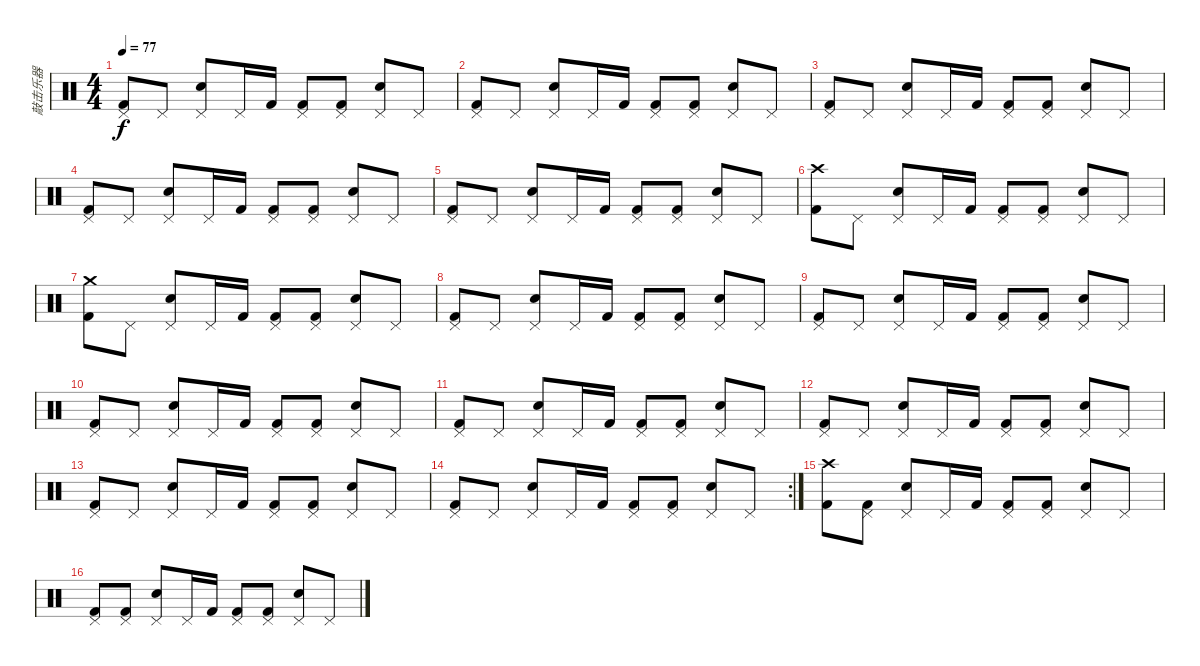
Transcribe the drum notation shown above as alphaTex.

\track ("敲击乐器" "敲击乐器") {instrument percussion}
\staff {score}
\articulation defaults
\ts (4 4)
\tempo 77
\clef neutral
\ks c
("Pedal Hi-Hat (hit)" "Kick (hit) 2").8{dy f} "Pedal Hi-Hat (hit)".8 ("Pedal Hi-Hat (hit)" "Snare (hit) 2").8 "Pedal Hi-Hat (hit)".16 "Kick (hit) 2".16 ("Pedal Hi-Hat (hit)" "Kick (hit) 2").8 ("Pedal Hi-Hat (hit)" "Kick (hit) 2").8 ("Pedal Hi-Hat (hit)" "Snare (hit) 2").8 "Pedal Hi-Hat (hit)".8 |
("Pedal Hi-Hat (hit)" "Kick (hit) 2").8 "Pedal Hi-Hat (hit)".8 ("Pedal Hi-Hat (hit)" "Snare (hit) 2").8 "Pedal Hi-Hat (hit)".16 "Kick (hit) 2".16 ("Pedal Hi-Hat (hit)" "Kick (hit) 2").8 ("Pedal Hi-Hat (hit)" "Kick (hit) 2").8 ("Pedal Hi-Hat (hit)" "Snare (hit) 2").8 "Pedal Hi-Hat (hit)".8 |
("Pedal Hi-Hat (hit)" "Kick (hit) 2").8 "Pedal Hi-Hat (hit)".8 ("Pedal Hi-Hat (hit)" "Snare (hit) 2").8 "Pedal Hi-Hat (hit)".16 "Kick (hit) 2".16 ("Pedal Hi-Hat (hit)" "Kick (hit) 2").8 ("Pedal Hi-Hat (hit)" "Kick (hit) 2").8 ("Pedal Hi-Hat (hit)" "Snare (hit) 2").8 "Pedal Hi-Hat (hit)".8 |
("Pedal Hi-Hat (hit)" "Kick (hit) 2").8 "Pedal Hi-Hat (hit)".8 ("Pedal Hi-Hat (hit)" "Snare (hit) 2").8 "Pedal Hi-Hat (hit)".16 "Kick (hit) 2".16 ("Pedal Hi-Hat (hit)" "Kick (hit) 2").8 ("Pedal Hi-Hat (hit)" "Kick (hit) 2").8 ("Pedal Hi-Hat (hit)" "Snare (hit) 2").8 "Pedal Hi-Hat (hit)".8 |
("Pedal Hi-Hat (hit)" "Kick (hit) 2").8 "Pedal Hi-Hat (hit)".8 ("Pedal Hi-Hat (hit)" "Snare (hit) 2").8 "Pedal Hi-Hat (hit)".16 "Kick (hit) 2".16 ("Pedal Hi-Hat (hit)" "Kick (hit) 2").8 ("Pedal Hi-Hat (hit)" "Kick (hit) 2").8 ("Pedal Hi-Hat (hit)" "Snare (hit) 2").8 "Pedal Hi-Hat (hit)".8 |
("Crash high (hit)" "Kick (hit) 2").8 "Pedal Hi-Hat (hit)".8 ("Pedal Hi-Hat (hit)" "Snare (hit) 2").8 "Pedal Hi-Hat (hit)".16 "Kick (hit) 2".16 ("Pedal Hi-Hat (hit)" "Kick (hit) 2").8 ("Pedal Hi-Hat (hit)" "Kick (hit) 2").8 ("Pedal Hi-Hat (hit)" "Snare (hit) 2").8 "Pedal Hi-Hat (hit)".8 |
("Crash medium (hit)" "Kick (hit) 2").8 "Pedal Hi-Hat (hit)".8 ("Pedal Hi-Hat (hit)" "Snare (hit) 2").8 "Pedal Hi-Hat (hit)".16 "Kick (hit) 2".16 ("Pedal Hi-Hat (hit)" "Kick (hit) 2").8 ("Pedal Hi-Hat (hit)" "Kick (hit) 2").8 ("Pedal Hi-Hat (hit)" "Snare (hit) 2").8 "Pedal Hi-Hat (hit)".8 |
("Pedal Hi-Hat (hit)" "Kick (hit) 2").8 "Pedal Hi-Hat (hit)".8 ("Pedal Hi-Hat (hit)" "Snare (hit) 2").8 "Pedal Hi-Hat (hit)".16 "Kick (hit) 2".16 ("Pedal Hi-Hat (hit)" "Kick (hit) 2").8 ("Pedal Hi-Hat (hit)" "Kick (hit) 2").8 ("Pedal Hi-Hat (hit)" "Snare (hit) 2").8 "Pedal Hi-Hat (hit)".8 |
("Pedal Hi-Hat (hit)" "Kick (hit) 2").8 "Pedal Hi-Hat (hit)".8 ("Pedal Hi-Hat (hit)" "Snare (hit) 2").8 "Pedal Hi-Hat (hit)".16 "Kick (hit) 2".16 ("Pedal Hi-Hat (hit)" "Kick (hit) 2").8 ("Pedal Hi-Hat (hit)" "Kick (hit) 2").8 ("Pedal Hi-Hat (hit)" "Snare (hit) 2").8 "Pedal Hi-Hat (hit)".8 |
("Pedal Hi-Hat (hit)" "Kick (hit) 2").8 "Pedal Hi-Hat (hit)".8 ("Pedal Hi-Hat (hit)" "Snare (hit) 2").8 "Pedal Hi-Hat (hit)".16 "Kick (hit) 2".16 ("Pedal Hi-Hat (hit)" "Kick (hit) 2").8 ("Pedal Hi-Hat (hit)" "Kick (hit) 2").8 ("Pedal Hi-Hat (hit)" "Snare (hit) 2").8 "Pedal Hi-Hat (hit)".8 |
("Pedal Hi-Hat (hit)" "Kick (hit) 2").8 "Pedal Hi-Hat (hit)".8 ("Pedal Hi-Hat (hit)" "Snare (hit) 2").8 "Pedal Hi-Hat (hit)".16 "Kick (hit) 2".16 ("Pedal Hi-Hat (hit)" "Kick (hit) 2").8 ("Pedal Hi-Hat (hit)" "Kick (hit) 2").8 ("Pedal Hi-Hat (hit)" "Snare (hit) 2").8 "Pedal Hi-Hat (hit)".8 |
("Pedal Hi-Hat (hit)" "Kick (hit) 2").8 "Pedal Hi-Hat (hit)".8 ("Pedal Hi-Hat (hit)" "Snare (hit) 2").8 "Pedal Hi-Hat (hit)".16 "Kick (hit) 2".16 ("Pedal Hi-Hat (hit)" "Kick (hit) 2").8 ("Pedal Hi-Hat (hit)" "Kick (hit) 2").8 ("Pedal Hi-Hat (hit)" "Snare (hit) 2").8 "Pedal Hi-Hat (hit)".8 |
("Pedal Hi-Hat (hit)" "Kick (hit) 2").8 "Pedal Hi-Hat (hit)".8 ("Pedal Hi-Hat (hit)" "Snare (hit) 2").8 "Pedal Hi-Hat (hit)".16 "Kick (hit) 2".16 ("Pedal Hi-Hat (hit)" "Kick (hit) 2").8 ("Pedal Hi-Hat (hit)" "Kick (hit) 2").8 ("Pedal Hi-Hat (hit)" "Snare (hit) 2").8 "Pedal Hi-Hat (hit)".8 |
\rc 2
("Pedal Hi-Hat (hit)" "Kick (hit) 2").8 "Pedal Hi-Hat (hit)".8 ("Pedal Hi-Hat (hit)" "Snare (hit) 2").8 "Pedal Hi-Hat (hit)".16 "Kick (hit) 2".16 ("Pedal Hi-Hat (hit)" "Kick (hit) 2").8 ("Pedal Hi-Hat (hit)" "Kick (hit) 2").8 ("Pedal Hi-Hat (hit)" "Snare (hit) 2").8 "Pedal Hi-Hat (hit)".8 |
("Crash high (hit)" "Kick (hit) 2").8 ("Pedal Hi-Hat (hit)" "Kick (hit) 2").8 ("Pedal Hi-Hat (hit)" "Snare (hit) 2").8 "Pedal Hi-Hat (hit)".16 "Kick (hit) 2".16 ("Pedal Hi-Hat (hit)" "Kick (hit) 2").8 ("Pedal Hi-Hat (hit)" "Kick (hit) 2").8 ("Pedal Hi-Hat (hit)" "Snare (hit) 2").8 "Pedal Hi-Hat (hit)".8 |
("Pedal Hi-Hat (hit)" "Kick (hit) 2").8 ("Pedal Hi-Hat (hit)" "Kick (hit) 2").8 ("Pedal Hi-Hat (hit)" "Snare (hit) 2").8 "Pedal Hi-Hat (hit)".16 "Kick (hit) 2".16 ("Pedal Hi-Hat (hit)" "Kick (hit) 2").8 ("Pedal Hi-Hat (hit)" "Kick (hit) 2").8 ("Pedal Hi-Hat (hit)" "Snare (hit) 2").8 "Pedal Hi-Hat (hit)".8
